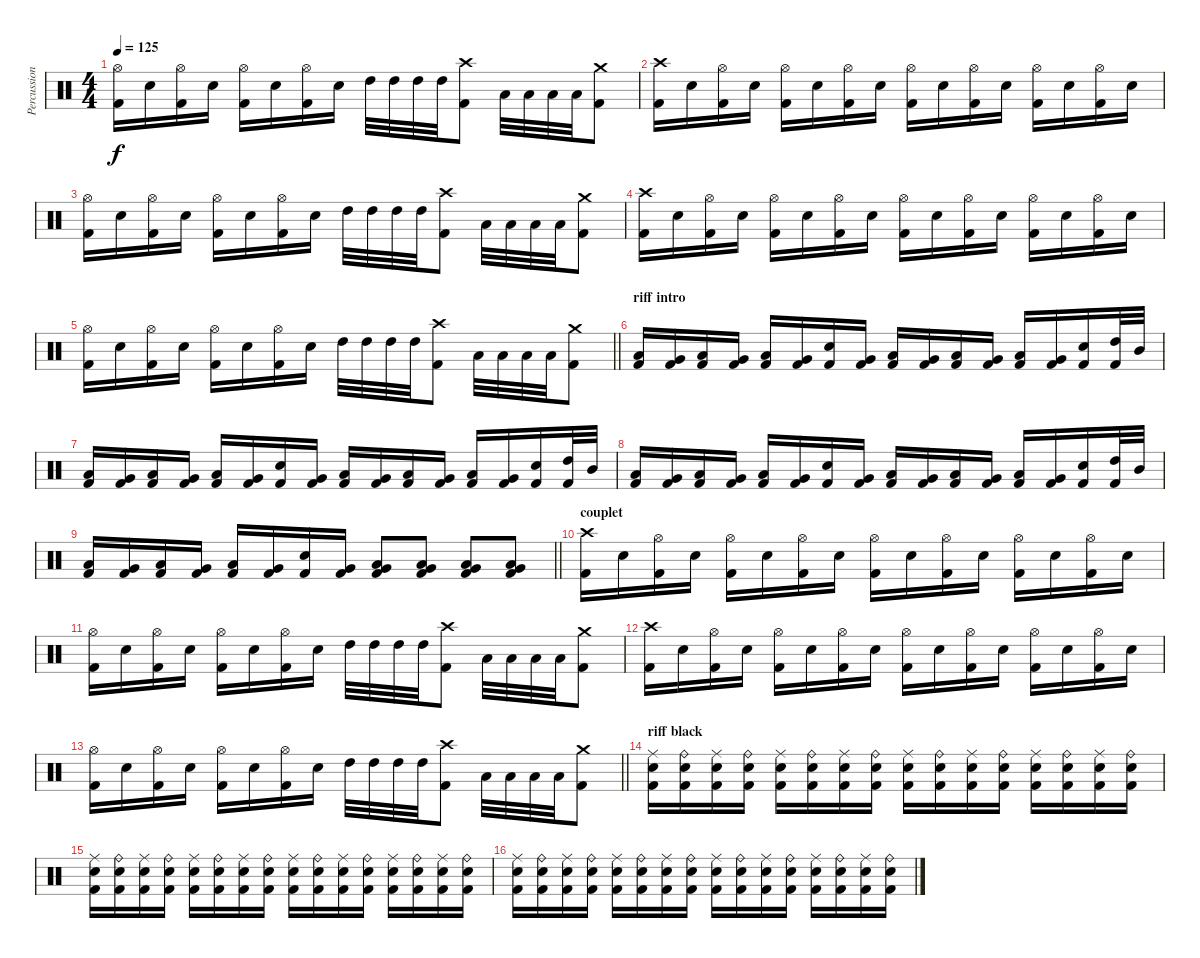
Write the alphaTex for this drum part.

\track ("Percussions" "Percussion") {instrument percussion}
\staff {score}
\articulation defaults
\ts (4 4)
\tempo 125
\clef neutral
\ks c
("Kick (hit) 2" "Hi-Hat (open)").16{dy f} "Electric Snare (hit)".16 ("Kick (hit) 2" "Hi-Hat (open)").16 "Electric Snare (hit)".16 ("Kick (hit) 2" "Hi-Hat (open)").16 "Electric Snare (hit)".16 ("Kick (hit) 2" "Hi-Hat (open)").16 "Electric Snare (hit)".16 "High Tom (hit)".32 "High Tom (hit)".32 "High Tom (hit)".32 "High Tom (hit)".32 ("Kick (hit) 2" "Crash high (hit)").8 "Low Tom (hit)".32 "Low Tom (hit)".32 "Low Tom (hit)".32 "Low Tom (hit)".32 ("Kick (hit) 2" "Crash medium (hit)").8 |
("Kick (hit) 2" "Crash high (hit)").16 "Electric Snare (hit)".16 ("Kick (hit) 2" "Hi-Hat (open)").16 "Electric Snare (hit)".16 ("Kick (hit) 2" "Hi-Hat (open)").16 "Electric Snare (hit)".16 ("Kick (hit) 2" "Hi-Hat (open)").16 "Electric Snare (hit)".16 ("Kick (hit) 2" "Hi-Hat (open)").16 "Electric Snare (hit)".16 ("Kick (hit) 2" "Hi-Hat (open)").16 "Electric Snare (hit)".16 ("Kick (hit) 2" "Hi-Hat (open)").16 "Electric Snare (hit)".16 ("Kick (hit) 2" "Hi-Hat (open)").16 "Electric Snare (hit)".16 |
("Kick (hit) 2" "Hi-Hat (open)").16 "Electric Snare (hit)".16 ("Kick (hit) 2" "Hi-Hat (open)").16 "Electric Snare (hit)".16 ("Kick (hit) 2" "Hi-Hat (open)").16 "Electric Snare (hit)".16 ("Kick (hit) 2" "Hi-Hat (open)").16 "Electric Snare (hit)".16 "High Tom (hit)".32 "High Tom (hit)".32 "High Tom (hit)".32 "High Tom (hit)".32 ("Kick (hit) 2" "Crash high (hit)").8 "Low Tom (hit)".32 "Low Tom (hit)".32 "Low Tom (hit)".32 "Low Tom (hit)".32 ("Kick (hit) 2" "Crash medium (hit)").8 |
("Kick (hit) 2" "Crash high (hit)").16 "Electric Snare (hit)".16 ("Kick (hit) 2" "Hi-Hat (open)").16 "Electric Snare (hit)".16 ("Kick (hit) 2" "Hi-Hat (open)").16 "Electric Snare (hit)".16 ("Kick (hit) 2" "Hi-Hat (open)").16 "Electric Snare (hit)".16 ("Kick (hit) 2" "Hi-Hat (open)").16 "Electric Snare (hit)".16 ("Kick (hit) 2" "Hi-Hat (open)").16 "Electric Snare (hit)".16 ("Kick (hit) 2" "Hi-Hat (open)").16 "Electric Snare (hit)".16 ("Kick (hit) 2" "Hi-Hat (open)").16 "Electric Snare (hit)".16 |
\barLineRight lightlight
("Kick (hit) 2" "Hi-Hat (open)").16 "Electric Snare (hit)".16 ("Kick (hit) 2" "Hi-Hat (open)").16 "Electric Snare (hit)".16 ("Kick (hit) 2" "Hi-Hat (open)").16 "Electric Snare (hit)".16 ("Kick (hit) 2" "Hi-Hat (open)").16 "Electric Snare (hit)".16 "High Tom (hit)".32 "High Tom (hit)".32 "High Tom (hit)".32 "High Tom (hit)".32 ("Kick (hit) 2" "Crash high (hit)").8 "Low Tom (hit)".32 "Low Tom (hit)".32 "Low Tom (hit)".32 "Low Tom (hit)".32 ("Kick (hit) 2" "Crash medium (hit)").8 |
\section ("" "riff intro")
("Kick (hit) 2" "Low Tom (hit)").16 ("Kick (hit) 2" "Very Low Tom (hit)").16 ("Kick (hit) 2" "Low Tom (hit)").16 ("Kick (hit) 2" "Very Low Tom (hit)").16 ("Kick (hit) 2" "Low Tom (hit)").16 ("Kick (hit) 2" "Very Low Tom (hit)").16 ("Kick (hit) 2" "Electric Snare (hit)").16 ("Kick (hit) 2" "Very Low Tom (hit)").16 ("Kick (hit) 2" "Low Tom (hit)").16 ("Kick (hit) 2" "Very Low Tom (hit)").16 ("Kick (hit) 2" "Low Tom (hit)").16 ("Kick (hit) 2" "Very Low Tom (hit)").16 ("Kick (hit) 2" "Low Tom (hit)").16 ("Kick (hit) 2" "Very Low Tom (hit)").16 ("Kick (hit) 2" "Electric Snare (hit)").16 ("Kick (hit) 2" "High Tom (hit)").32 "Mid Tom (hit)".32 |
("Kick (hit) 2" "Low Tom (hit)").16 ("Kick (hit) 2" "Very Low Tom (hit)").16 ("Kick (hit) 2" "Low Tom (hit)").16 ("Kick (hit) 2" "Very Low Tom (hit)").16 ("Kick (hit) 2" "Low Tom (hit)").16 ("Kick (hit) 2" "Very Low Tom (hit)").16 ("Kick (hit) 2" "Electric Snare (hit)").16 ("Kick (hit) 2" "Very Low Tom (hit)").16 ("Kick (hit) 2" "Low Tom (hit)").16 ("Kick (hit) 2" "Very Low Tom (hit)").16 ("Kick (hit) 2" "Low Tom (hit)").16 ("Kick (hit) 2" "Very Low Tom (hit)").16 ("Kick (hit) 2" "Low Tom (hit)").16 ("Kick (hit) 2" "Very Low Tom (hit)").16 ("Kick (hit) 2" "Electric Snare (hit)").16 ("Kick (hit) 2" "High Tom (hit)").32 "Mid Tom (hit)".32 |
("Kick (hit) 2" "Low Tom (hit)").16 ("Kick (hit) 2" "Very Low Tom (hit)").16 ("Kick (hit) 2" "Low Tom (hit)").16 ("Kick (hit) 2" "Very Low Tom (hit)").16 ("Kick (hit) 2" "Low Tom (hit)").16 ("Kick (hit) 2" "Very Low Tom (hit)").16 ("Kick (hit) 2" "Electric Snare (hit)").16 ("Kick (hit) 2" "Very Low Tom (hit)").16 ("Kick (hit) 2" "Low Tom (hit)").16 ("Kick (hit) 2" "Very Low Tom (hit)").16 ("Kick (hit) 2" "Low Tom (hit)").16 ("Kick (hit) 2" "Very Low Tom (hit)").16 ("Kick (hit) 2" "Low Tom (hit)").16 ("Kick (hit) 2" "Very Low Tom (hit)").16 ("Kick (hit) 2" "Electric Snare (hit)").16 ("Kick (hit) 2" "High Tom (hit)").32 "Mid Tom (hit)".32 |
\barLineRight lightlight
("Kick (hit) 2" "Low Tom (hit)").16 ("Kick (hit) 2" "Very Low Tom (hit)").16 ("Kick (hit) 2" "Low Tom (hit)").16 ("Kick (hit) 2" "Very Low Tom (hit)").16 ("Kick (hit) 2" "Low Tom (hit)").16 ("Kick (hit) 2" "Very Low Tom (hit)").16 ("Kick (hit) 2" "Electric Snare (hit)").16 ("Kick (hit) 2" "Very Low Tom (hit)").16 ("Kick (hit) 2" "Low Tom (hit)" "Very Low Tom (hit)").8 ("Kick (hit) 2" "Low Tom (hit)" "Very Low Tom (hit)").8 ("Kick (hit) 2" "Low Tom (hit)" "Very Low Tom (hit)").8 ("Kick (hit) 2" "Low Tom (hit)" "Very Low Tom (hit)").8 |
\section ("" "couplet")
("Kick (hit) 2" "Crash high (hit)").16 "Electric Snare (hit)".16 ("Kick (hit) 2" "Hi-Hat (open)").16 "Electric Snare (hit)".16 ("Kick (hit) 2" "Hi-Hat (open)").16 "Electric Snare (hit)".16 ("Kick (hit) 2" "Hi-Hat (open)").16 "Electric Snare (hit)".16 ("Kick (hit) 2" "Hi-Hat (open)").16 "Electric Snare (hit)".16 ("Kick (hit) 2" "Hi-Hat (open)").16 "Electric Snare (hit)".16 ("Kick (hit) 2" "Hi-Hat (open)").16 "Electric Snare (hit)".16 ("Kick (hit) 2" "Hi-Hat (open)").16 "Electric Snare (hit)".16 |
("Kick (hit) 2" "Hi-Hat (open)").16 "Electric Snare (hit)".16 ("Kick (hit) 2" "Hi-Hat (open)").16 "Electric Snare (hit)".16 ("Kick (hit) 2" "Hi-Hat (open)").16 "Electric Snare (hit)".16 ("Kick (hit) 2" "Hi-Hat (open)").16 "Electric Snare (hit)".16 "High Tom (hit)".32 "High Tom (hit)".32 "High Tom (hit)".32 "High Tom (hit)".32 ("Kick (hit) 2" "Crash high (hit)").8 "Low Tom (hit)".32 "Low Tom (hit)".32 "Low Tom (hit)".32 "Low Tom (hit)".32 ("Kick (hit) 2" "Crash medium (hit)").8 |
("Kick (hit) 2" "Crash high (hit)").16 "Electric Snare (hit)".16 ("Kick (hit) 2" "Hi-Hat (open)").16 "Electric Snare (hit)".16 ("Kick (hit) 2" "Hi-Hat (open)").16 "Electric Snare (hit)".16 ("Kick (hit) 2" "Hi-Hat (open)").16 "Electric Snare (hit)".16 ("Kick (hit) 2" "Hi-Hat (open)").16 "Electric Snare (hit)".16 ("Kick (hit) 2" "Hi-Hat (open)").16 "Electric Snare (hit)".16 ("Kick (hit) 2" "Hi-Hat (open)").16 "Electric Snare (hit)".16 ("Kick (hit) 2" "Hi-Hat (open)").16 "Electric Snare (hit)".16 |
\barLineRight lightlight
("Kick (hit) 2" "Hi-Hat (open)").16 "Electric Snare (hit)".16 ("Kick (hit) 2" "Hi-Hat (open)").16 "Electric Snare (hit)".16 ("Kick (hit) 2" "Hi-Hat (open)").16 "Electric Snare (hit)".16 ("Kick (hit) 2" "Hi-Hat (open)").16 "Electric Snare (hit)".16 "High Tom (hit)".32 "High Tom (hit)".32 "High Tom (hit)".32 "High Tom (hit)".32 ("Kick (hit) 2" "Crash high (hit)").8 "Low Tom (hit)".32 "Low Tom (hit)".32 "Low Tom (hit)".32 "Low Tom (hit)".32 ("Kick (hit) 2" "Crash medium (hit)").8 |
\section ("" "riff black")
("Kick (hit) 2" "Electric Snare (hit)" "Ride (middle)").16 ("Kick (hit) 2" "Electric Snare (hit)" "Ride (bell)").16 ("Kick (hit) 2" "Electric Snare (hit)" "Ride (middle)").16 ("Kick (hit) 2" "Electric Snare (hit)" "Ride (bell)").16 ("Kick (hit) 2" "Electric Snare (hit)" "Ride (middle)").16 ("Kick (hit) 2" "Electric Snare (hit)" "Ride (bell)").16 ("Kick (hit) 2" "Electric Snare (hit)" "Ride (middle)").16 ("Kick (hit) 2" "Electric Snare (hit)" "Ride (bell)").16 ("Kick (hit) 2" "Electric Snare (hit)" "Ride (middle)").16 ("Kick (hit) 2" "Electric Snare (hit)" "Ride (bell)").16 ("Kick (hit) 2" "Electric Snare (hit)" "Ride (middle)").16 ("Kick (hit) 2" "Electric Snare (hit)" "Ride (bell)").16 ("Kick (hit) 2" "Electric Snare (hit)" "Ride (middle)").16 ("Kick (hit) 2" "Electric Snare (hit)" "Ride (bell)").16 ("Kick (hit) 2" "Electric Snare (hit)" "Ride (middle)").16 ("Kick (hit) 2" "Electric Snare (hit)" "Ride (bell)").16 |
("Kick (hit) 2" "Electric Snare (hit)" "Ride (middle)").16 ("Kick (hit) 2" "Electric Snare (hit)" "Ride (bell)").16 ("Kick (hit) 2" "Electric Snare (hit)" "Ride (middle)").16 ("Kick (hit) 2" "Electric Snare (hit)" "Ride (bell)").16 ("Kick (hit) 2" "Electric Snare (hit)" "Ride (middle)").16 ("Kick (hit) 2" "Electric Snare (hit)" "Ride (bell)").16 ("Kick (hit) 2" "Electric Snare (hit)" "Ride (middle)").16 ("Kick (hit) 2" "Electric Snare (hit)" "Ride (bell)").16 ("Kick (hit) 2" "Electric Snare (hit)" "Ride (middle)").16 ("Kick (hit) 2" "Electric Snare (hit)" "Ride (bell)").16 ("Kick (hit) 2" "Electric Snare (hit)" "Ride (middle)").16 ("Kick (hit) 2" "Electric Snare (hit)" "Ride (bell)").16 ("Kick (hit) 2" "Electric Snare (hit)" "Ride (middle)").16 ("Kick (hit) 2" "Electric Snare (hit)" "Ride (bell)").16 ("Kick (hit) 2" "Electric Snare (hit)" "Ride (middle)").16 ("Kick (hit) 2" "Electric Snare (hit)" "Ride (bell)").16 |
("Kick (hit) 2" "Electric Snare (hit)" "Ride (middle)").16 ("Kick (hit) 2" "Electric Snare (hit)" "Ride (bell)").16 ("Kick (hit) 2" "Electric Snare (hit)" "Ride (middle)").16 ("Kick (hit) 2" "Electric Snare (hit)" "Ride (bell)").16 ("Kick (hit) 2" "Electric Snare (hit)" "Ride (middle)").16 ("Kick (hit) 2" "Electric Snare (hit)" "Ride (bell)").16 ("Kick (hit) 2" "Electric Snare (hit)" "Ride (middle)").16 ("Kick (hit) 2" "Electric Snare (hit)" "Ride (bell)").16 ("Kick (hit) 2" "Electric Snare (hit)" "Ride (middle)").16 ("Kick (hit) 2" "Electric Snare (hit)" "Ride (bell)").16 ("Kick (hit) 2" "Electric Snare (hit)" "Ride (middle)").16 ("Kick (hit) 2" "Electric Snare (hit)" "Ride (bell)").16 ("Kick (hit) 2" "Electric Snare (hit)" "Ride (middle)").16 ("Kick (hit) 2" "Electric Snare (hit)" "Ride (bell)").16 ("Kick (hit) 2" "Electric Snare (hit)" "Ride (middle)").16 ("Kick (hit) 2" "Electric Snare (hit)" "Ride (bell)").16
